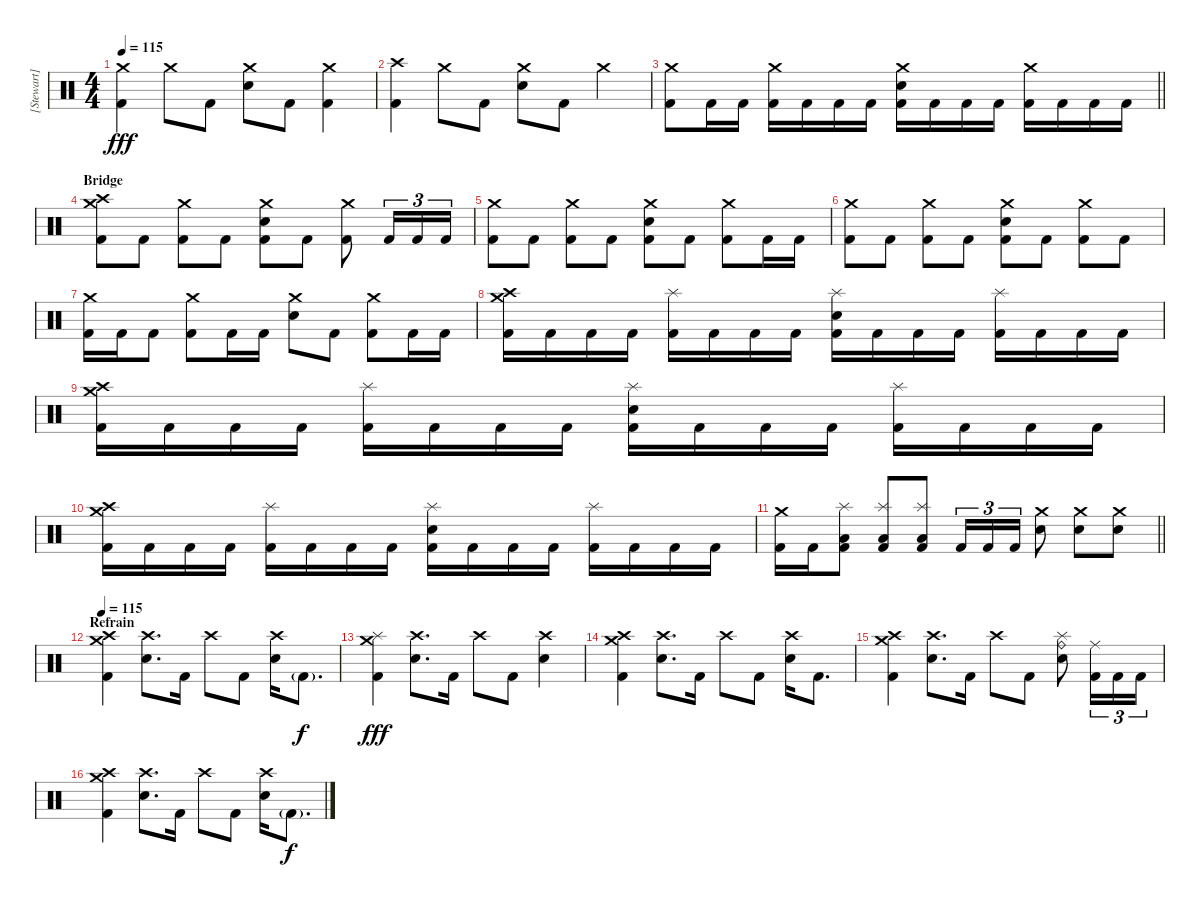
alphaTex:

\track ("[Stewart] Drums " "[Stewart] ") {instrument percussion}
\staff {score}
\articulation defaults
\ts (4 4)
\tempo 115
\clef neutral
\ks c
("Crash medium (hit)" "Kick (hit) 2").4{dy fff} "Crash medium (hit)".8 "Kick (hit) 2".8 ("Crash medium (hit)" "Electric Snare (hit)").8 "Kick (hit) 2".8 ("Crash medium (hit)" "Kick (hit) 2").4 |
("Crash high (hit)" "Kick (hit) 2").4 "Crash medium (hit)".8 "Kick (hit) 2".8 ("Crash medium (hit)" "Electric Snare (hit)").8 "Kick (hit) 2".8 "Crash medium (hit)".4 |
\barLineRight lightlight
("Crash medium (hit)" "Kick (hit) 2").8 "Kick (hit) 2".16 "Kick (hit) 2".16 ("Crash medium (hit)" "Kick (hit) 2").16 "Kick (hit) 2".16 "Kick (hit) 2".16 "Kick (hit) 2".16 ("Crash medium (hit)" "Electric Snare (hit)" "Kick (hit) 2").16 "Kick (hit) 2".16 "Kick (hit) 2".16 "Kick (hit) 2".16 ("Crash medium (hit)" "Kick (hit) 2").16 "Kick (hit) 2".16 "Kick (hit) 2".16 "Kick (hit) 2".16 |
\section ("" "Bridge ")
("Crash medium (hit)" "Crash high (hit)" "Kick (hit) 2").8 "Kick (hit) 2".8 ("Crash medium (hit)" "Kick (hit) 2").8 "Kick (hit) 2".8 ("Crash medium (hit)" "Electric Snare (hit)" "Kick (hit) 2").8 "Kick (hit) 2".8 ("Crash medium (hit)" "Kick (hit) 2").8 "Kick (hit) 2".16{tu (3 2)} "Kick (hit) 2".16{tu (3 2)} "Kick (hit) 2".16{tu (3 2)} |
("Crash medium (hit)" "Kick (hit) 2").8 "Kick (hit) 2".8 ("Crash medium (hit)" "Kick (hit) 2").8 "Kick (hit) 2".8 ("Crash medium (hit)" "Electric Snare (hit)" "Kick (hit) 2").8 "Kick (hit) 2".8 ("Crash medium (hit)" "Kick (hit) 2").8 "Kick (hit) 2".16 "Kick (hit) 2".16 |
("Crash medium (hit)" "Kick (hit) 2").8 "Kick (hit) 2".8 ("Crash medium (hit)" "Kick (hit) 2").8 "Kick (hit) 2".8 ("Crash medium (hit)" "Electric Snare (hit)" "Kick (hit) 2").8 "Kick (hit) 2".8 ("Crash medium (hit)" "Kick (hit) 2").8 "Kick (hit) 2".8 |
("Crash medium (hit)" "Kick (hit) 2").16 "Kick (hit) 2".16 "Kick (hit) 2".8 ("Crash medium (hit)" "Kick (hit) 2").8 "Kick (hit) 2".16 "Kick (hit) 2".16 ("Crash medium (hit)" "Electric Snare (hit)").8 "Kick (hit) 2".8 ("Crash medium (hit)" "Kick (hit) 2").8 "Kick (hit) 2".16 "Kick (hit) 2".16 |
("Crash medium (hit)" "Crash high (hit)" "Kick (hit) 2").16 "Kick (hit) 2".16 "Kick (hit) 2".16 "Kick (hit) 2".16 ("Splash (hit)" "Kick (hit) 2").16 "Kick (hit) 2".16 "Kick (hit) 2".16 "Kick (hit) 2".16 ("Splash (hit)" "Electric Snare (hit)" "Kick (hit) 2").16 "Kick (hit) 2".16 "Kick (hit) 2".16 "Kick (hit) 2".16 ("Splash (hit)" "Kick (hit) 2").16 "Kick (hit) 2".16 "Kick (hit) 2".16 "Kick (hit) 2".16 |
("Crash medium (hit)" "Crash high (hit)" "Kick (hit) 2").16 "Kick (hit) 2".16 "Kick (hit) 2".16 "Kick (hit) 2".16 ("Splash (hit)" "Kick (hit) 2").16 "Kick (hit) 2".16 "Kick (hit) 2".16 "Kick (hit) 2".16 ("Splash (hit)" "Electric Snare (hit)" "Kick (hit) 2").16 "Kick (hit) 2".16 "Kick (hit) 2".16 "Kick (hit) 2".16 ("Splash (hit)" "Kick (hit) 2").16 "Kick (hit) 2".16 "Kick (hit) 2".16 "Kick (hit) 2".16 |
("Crash medium (hit)" "Crash high (hit)" "Kick (hit) 2").16 "Kick (hit) 2".16 "Kick (hit) 2".16 "Kick (hit) 2".16 ("Splash (hit)" "Kick (hit) 2").16 "Kick (hit) 2".16 "Kick (hit) 2".16 "Kick (hit) 2".16 ("Splash (hit)" "Electric Snare (hit)" "Kick (hit) 2").16 "Kick (hit) 2".16 "Kick (hit) 2".16 "Kick (hit) 2".16 ("Splash (hit)" "Kick (hit) 2").16 "Kick (hit) 2".16 "Kick (hit) 2".16 "Kick (hit) 2".16 |
\barLineRight lightlight
("Crash medium (hit)" "Kick (hit) 2").16 "Kick (hit) 2".16 ("Splash (hit)" "Low Floor Tom (hit)" "Kick (hit) 2").8 ("Splash (hit)" "Low Floor Tom (hit)" "Kick (hit) 2").8 ("Splash (hit)" "Low Floor Tom (hit)" "Kick (hit) 2").8 "Kick (hit) 2".16{tu (3 2)} "Kick (hit) 2".16{tu (3 2)} "Kick (hit) 2".16{tu (3 2)} ("Crash medium (hit)" "Electric Snare (hit)").8 ("Crash medium (hit)" "Electric Snare (hit)").8 ("Crash medium (hit)" "Electric Snare (hit)").8 |
\section ("" "Refrain ")
\tempo 115
("Crash medium (hit)" "Crash high (hit)" "Kick (hit) 2").4 ("Crash high (hit)" "Electric Snare (hit)").8{d} "Kick (hit) 2".16 "Crash high (hit)".8 "Kick (hit) 2".8 ("Crash high (hit)" "Electric Snare (hit)").16 "Kick (hit) 2"{g}.8{d dy f} |
("Crash medium (hit)" "Splash (hit)" "Kick (hit) 2").4{dy fff} ("Crash high (hit)" "Electric Snare (hit)").8{d} "Kick (hit) 2".16 "Crash high (hit)".8 "Kick (hit) 2".8 ("Crash high (hit)" "Electric Snare (hit)").4 |
("Crash medium (hit)" "Crash high (hit)" "Kick (hit) 2").4 ("Crash high (hit)" "Electric Snare (hit)").8{d} "Kick (hit) 2".16 "Crash high (hit)".8 "Kick (hit) 2".8 ("Crash high (hit)" "Electric Snare (hit)").16 "Kick (hit) 2".8{d} |
("Crash medium (hit)" "Crash high (hit)" "Kick (hit) 2").4 ("Crash high (hit)" "Electric Snare (hit)").8{d} "Kick (hit) 2".16 "Crash high (hit)".8 "Kick (hit) 2".8 ("Ride (bell)" "Splash (hit)" "Electric Snare (hit)").8 ("Ride (middle)" "Kick (hit) 2").16{tu (3 2)} "Kick (hit) 2".16{tu (3 2)} "Kick (hit) 2".16{tu (3 2)} |
("Crash medium (hit)" "Crash high (hit)" "Kick (hit) 2").4 ("Crash high (hit)" "Electric Snare (hit)").8{d} "Kick (hit) 2".16 "Crash high (hit)".8 "Kick (hit) 2".8 ("Crash high (hit)" "Electric Snare (hit)").16 "Kick (hit) 2"{g}.8{d dy f}
